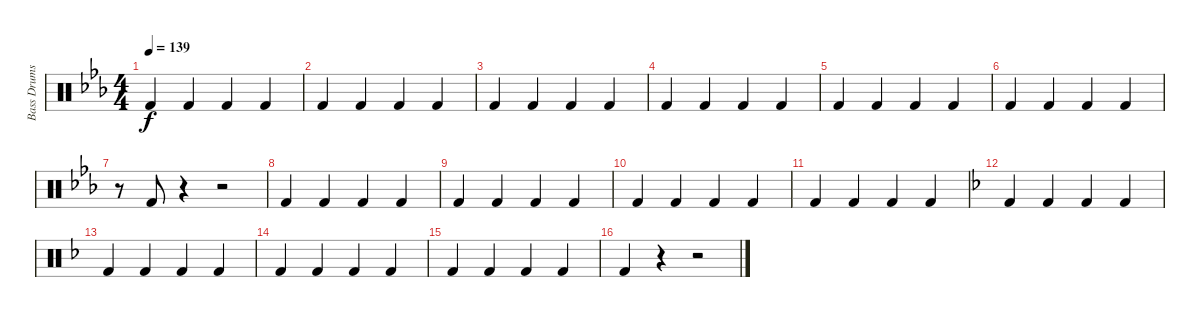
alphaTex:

\track ("Bass Drums" "Bass Drums") {instrument percussion}
\staff {score}
\articulation defaults
\ts (4 4)
\tempo 139
\clef neutral
\ks eb "Kick (hit) 2".4{dy f} "Kick (hit) 2".4 "Kick (hit) 2".4 "Kick (hit) 2".4
|
"Kick (hit) 2".4 "Kick (hit) 2".4 "Kick (hit) 2".4 "Kick (hit) 2".4 |
"Kick (hit) 2".4 "Kick (hit) 2".4 "Kick (hit) 2".4 "Kick (hit) 2".4 |
"Kick (hit) 2".4 "Kick (hit) 2".4 "Kick (hit) 2".4 "Kick (hit) 2".4 |
"Kick (hit) 2".4 "Kick (hit) 2".4 "Kick (hit) 2".4 "Kick (hit) 2".4 |
"Kick (hit) 2".4 "Kick (hit) 2".4 "Kick (hit) 2".4 "Kick (hit) 2".4 |
r.8 "Kick (hit) 2".8 r.4 r.2 |
"Kick (hit) 2".4 "Kick (hit) 2".4 "Kick (hit) 2".4 "Kick (hit) 2".4 |
"Kick (hit) 2".4 "Kick (hit) 2".4 "Kick (hit) 2".4 "Kick (hit) 2".4 |
"Kick (hit) 2".4 "Kick (hit) 2".4 "Kick (hit) 2".4 "Kick (hit) 2".4 |
"Kick (hit) 2".4 "Kick (hit) 2".4 "Kick (hit) 2".4 "Kick (hit) 2".4 |
\ks f "Kick (hit) 2".4 "Kick (hit) 2".4 "Kick (hit) 2".4 "Kick (hit) 2".4
|
"Kick (hit) 2".4 "Kick (hit) 2".4 "Kick (hit) 2".4 "Kick (hit) 2".4 |
"Kick (hit) 2".4 "Kick (hit) 2".4 "Kick (hit) 2".4 "Kick (hit) 2".4 |
"Kick (hit) 2".4 "Kick (hit) 2".4 "Kick (hit) 2".4 "Kick (hit) 2".4 |
"Kick (hit) 2".4 r.4 r.2
